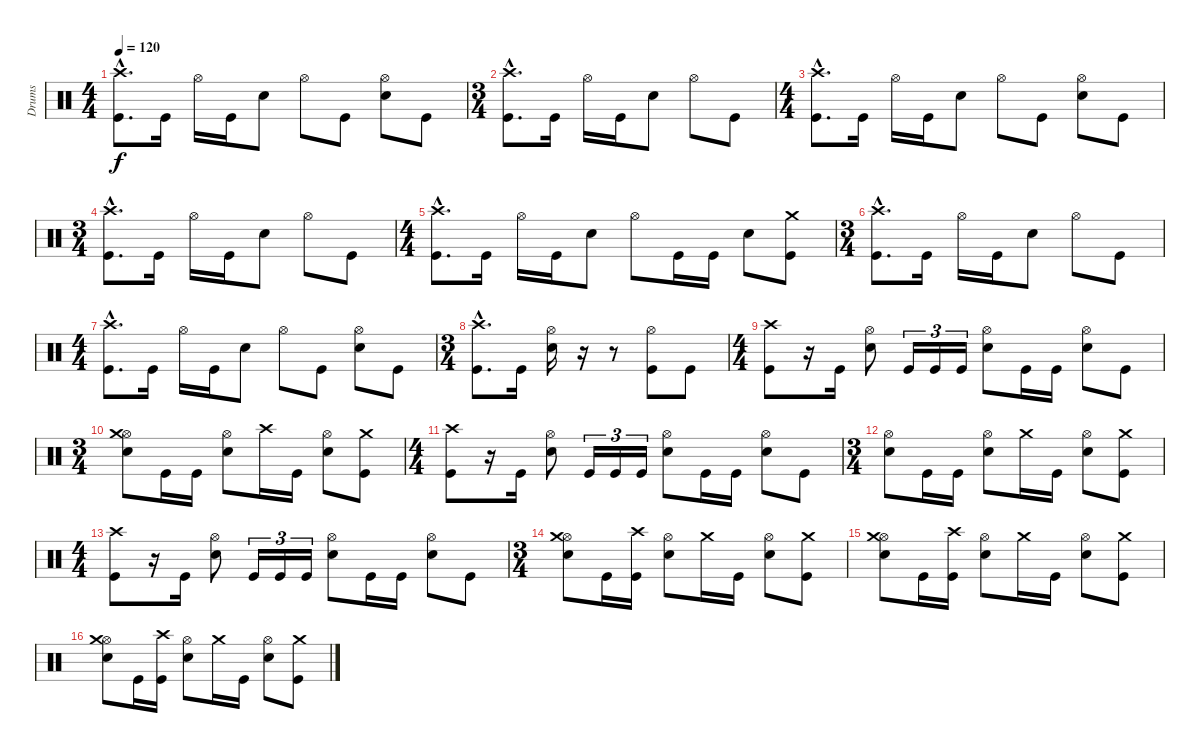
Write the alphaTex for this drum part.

\track ("Drums" "Drums") {instrument percussion}
\staff {score}
\articulation defaults
\ts (4 4)
\tempo 120
\clef neutral
\ks c
("Kick (hit)"{hac} "Crash high (hit)"{hac}).8{d dy f} "Kick (hit)".16 "Hi-Hat (open)".16 "Kick (hit)".16 "Snare (hit) 2".8 "Hi-Hat (open)".8 "Kick (hit)".8 ("Snare (hit) 2" "Hi-Hat (open)").8 "Kick (hit)".8 |
\ts (3 4)
("Kick (hit)"{hac} "Crash high (hit)"{hac}).8{d} "Kick (hit)".16 "Hi-Hat (open)".16 "Kick (hit)".16 "Snare (hit) 2".8 "Hi-Hat (open)".8 "Kick (hit)".8 |
\ts (4 4)
("Kick (hit)"{hac} "Crash high (hit)"{hac}).8{d} "Kick (hit)".16 "Hi-Hat (open)".16 "Kick (hit)".16 "Snare (hit) 2".8 "Hi-Hat (open)".8 "Kick (hit)".8 ("Snare (hit) 2" "Hi-Hat (open)").8 "Kick (hit)".8 |
\ts (3 4)
("Kick (hit)"{hac} "Crash high (hit)"{hac}).8{d} "Kick (hit)".16 "Hi-Hat (open)".16 "Kick (hit)".16 "Snare (hit) 2".8 "Hi-Hat (open)".8 "Kick (hit)".8 |
\ts (4 4)
("Kick (hit)"{hac} "Crash high (hit)"{hac}).8{d} "Kick (hit)".16 "Hi-Hat (open)".16 "Kick (hit)".16 "Snare (hit) 2".8 "Hi-Hat (open)".8 "Kick (hit)".16 "Kick (hit)".16 "Snare (hit) 2".8 ("Kick (hit)" "Crash medium (hit)").8 |
\ts (3 4)
("Kick (hit)"{hac} "Crash high (hit)"{hac}).8{d} "Kick (hit)".16 "Hi-Hat (open)".16 "Kick (hit)".16 "Snare (hit) 2".8 "Hi-Hat (open)".8 "Kick (hit)".8 |
\ts (4 4)
("Kick (hit)"{hac} "Crash high (hit)"{hac}).8{d} "Kick (hit)".16 "Hi-Hat (open)".16 "Kick (hit)".16 "Snare (hit) 2".8 "Hi-Hat (open)".8 "Kick (hit)".8 ("Snare (hit) 2" "Hi-Hat (open)").8 "Kick (hit)".8 |
\ts (3 4)
("Kick (hit)"{hac} "Crash high (hit)"{hac}).8{d} "Kick (hit)".16 ("Snare (hit) 2" "Hi-Hat (open)").16 r.16 r.8 ("Kick (hit)" "Hi-Hat (open)").8 "Kick (hit)".8 |
\ts (4 4)
("Kick (hit)" "Crash high (hit)").8 r.16 "Kick (hit)".16 ("Snare (hit) 2" "Hi-Hat (open)").8 "Kick (hit)".16{tu (3 2)} "Kick (hit)".16{tu (3 2)} "Kick (hit)".16{tu (3 2)} ("Snare (hit) 2" "Hi-Hat (open)").8 "Kick (hit)".16 "Kick (hit)".16 ("Snare (hit) 2" "Hi-Hat (open)").8 "Kick (hit)".8 |
\ts (3 4)
("Snare (hit) 2" "Hi-Hat (open)" "Crash medium (hit)").8 "Kick (hit)".16 "Kick (hit)".16 ("Snare (hit) 2" "Hi-Hat (open)").8 "Crash high (hit)".16 "Kick (hit)".16 ("Snare (hit) 2" "Hi-Hat (open)").8 ("Kick (hit)" "Crash medium (hit)").8 |
\ts (4 4)
("Kick (hit)" "Crash high (hit)").8 r.16 "Kick (hit)".16 ("Snare (hit) 2" "Hi-Hat (open)").8 "Kick (hit)".16{tu (3 2)} "Kick (hit)".16{tu (3 2)} "Kick (hit)".16{tu (3 2)} ("Snare (hit) 2" "Hi-Hat (open)").8 "Kick (hit)".16 "Kick (hit)".16 ("Snare (hit) 2" "Hi-Hat (open)").8 "Kick (hit)".8 |
\ts (3 4)
("Snare (hit) 2" "Hi-Hat (open)").8 "Kick (hit)".16 "Kick (hit)".16 ("Snare (hit) 2" "Hi-Hat (open)").8 "Crash medium (hit)".16 "Kick (hit)".16 ("Snare (hit) 2" "Hi-Hat (open)").8 ("Kick (hit)" "Crash medium (hit)").8 |
\ts (4 4)
("Kick (hit)" "Crash high (hit)").8 r.16 "Kick (hit)".16 ("Snare (hit) 2" "Hi-Hat (open)").8 "Kick (hit)".16{tu (3 2)} "Kick (hit)".16{tu (3 2)} "Kick (hit)".16{tu (3 2)} ("Snare (hit) 2" "Hi-Hat (open)").8 "Kick (hit)".16 "Kick (hit)".16 ("Snare (hit) 2" "Hi-Hat (open)").8 "Kick (hit)".8 |
\ts (3 4)
("Snare (hit) 2" "Hi-Hat (open)" "Crash medium (hit)").8 "Kick (hit)".16 ("Kick (hit)" "Crash high (hit)").16 ("Snare (hit) 2" "Hi-Hat (open)").8 "Crash medium (hit)".16 "Kick (hit)".16 ("Snare (hit) 2" "Hi-Hat (open)").8 ("Kick (hit)" "Crash medium (hit)").8 |
("Snare (hit) 2" "Hi-Hat (open)" "Crash medium (hit)").8 "Kick (hit)".16 ("Kick (hit)" "Crash high (hit)").16 ("Snare (hit) 2" "Hi-Hat (open)").8 "Crash medium (hit)".16 "Kick (hit)".16 ("Snare (hit) 2" "Hi-Hat (open)").8 ("Kick (hit)" "Crash medium (hit)").8 |
("Snare (hit) 2" "Hi-Hat (open)" "Crash medium (hit)").8 "Kick (hit)".16 ("Kick (hit)" "Crash high (hit)").16 ("Snare (hit) 2" "Hi-Hat (open)").8 "Crash medium (hit)".16 "Kick (hit)".16 ("Snare (hit) 2" "Hi-Hat (open)").8 ("Kick (hit)" "Crash medium (hit)").8
